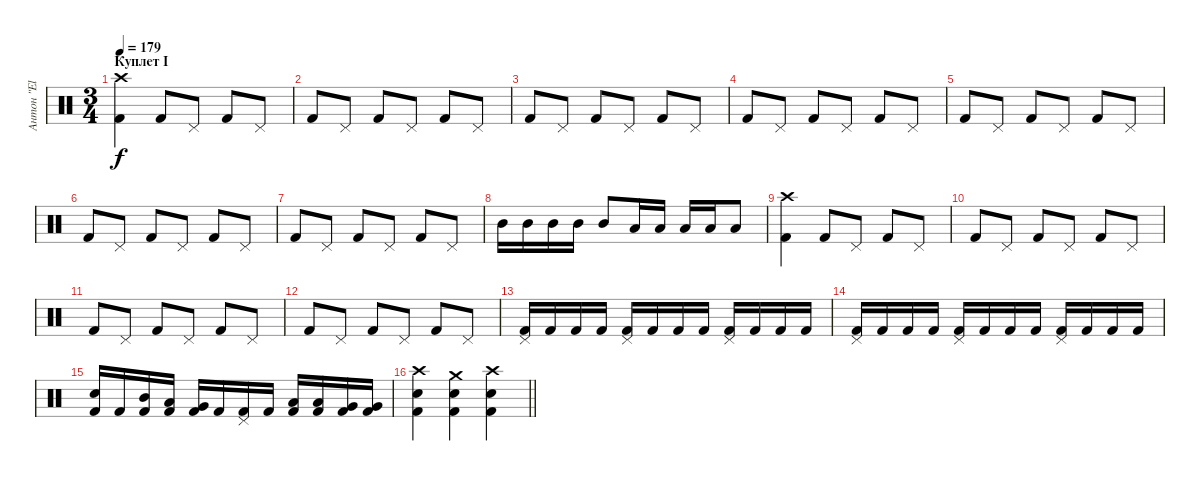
\track ("Антон \"El Bastardo\" Смольянин" "Антон \"El ") {instrument percussion}
\staff {score}
\articulation defaults
\ts (3 4)
\section ("" "Куплет I")
\tempo 179
\clef neutral
\ks c
("Crash high (hit)" "Kick (hit) 2").4{dy f} "Kick (hit) 2".8 "Pedal Hi-Hat (hit)".8 "Kick (hit) 2".8 "Pedal Hi-Hat (hit)".8 |
"Kick (hit) 2".8 "Pedal Hi-Hat (hit)".8 "Kick (hit) 2".8 "Pedal Hi-Hat (hit)".8 "Kick (hit) 2".8 "Pedal Hi-Hat (hit)".8 |
"Kick (hit) 2".8 "Pedal Hi-Hat (hit)".8 "Kick (hit) 2".8 "Pedal Hi-Hat (hit)".8 "Kick (hit) 2".8 "Pedal Hi-Hat (hit)".8 |
"Kick (hit) 2".8 "Pedal Hi-Hat (hit)".8 "Kick (hit) 2".8 "Pedal Hi-Hat (hit)".8 "Kick (hit) 2".8 "Pedal Hi-Hat (hit)".8 |
"Kick (hit) 2".8 "Pedal Hi-Hat (hit)".8 "Kick (hit) 2".8 "Pedal Hi-Hat (hit)".8 "Kick (hit) 2".8 "Pedal Hi-Hat (hit)".8 |
"Kick (hit) 2".8 "Pedal Hi-Hat (hit)".8 "Kick (hit) 2".8 "Pedal Hi-Hat (hit)".8 "Kick (hit) 2".8 "Pedal Hi-Hat (hit)".8 |
"Kick (hit) 2".8 "Pedal Hi-Hat (hit)".8 "Kick (hit) 2".8 "Pedal Hi-Hat (hit)".8 "Kick (hit) 2".8 "Pedal Hi-Hat (hit)".8 |
"Mid Tom (hit)".16 "Mid Tom (hit)".16 "Mid Tom (hit)".16 "Mid Tom (hit)".16 "Mid Tom (hit)".8 "Low Tom (hit)".16 "Low Tom (hit)".16 "Low Tom (hit)".16 "Low Tom (hit)".16 "Low Tom (hit)".8 |
("Crash high (hit)" "Kick (hit) 2").4 "Kick (hit) 2".8 "Pedal Hi-Hat (hit)".8 "Kick (hit) 2".8 "Pedal Hi-Hat (hit)".8 |
"Kick (hit) 2".8 "Pedal Hi-Hat (hit)".8 "Kick (hit) 2".8 "Pedal Hi-Hat (hit)".8 "Kick (hit) 2".8 "Pedal Hi-Hat (hit)".8 |
"Kick (hit) 2".8 "Pedal Hi-Hat (hit)".8 "Kick (hit) 2".8 "Pedal Hi-Hat (hit)".8 "Kick (hit) 2".8 "Pedal Hi-Hat (hit)".8 |
"Kick (hit) 2".8 "Pedal Hi-Hat (hit)".8 "Kick (hit) 2".8 "Pedal Hi-Hat (hit)".8 "Kick (hit) 2".8 "Pedal Hi-Hat (hit)".8 |
("Pedal Hi-Hat (hit)" "Kick (hit) 2").16 "Kick (hit) 2".16 "Kick (hit) 2".16 "Kick (hit) 2".16 ("Pedal Hi-Hat (hit)" "Kick (hit) 2").16 "Kick (hit) 2".16 "Kick (hit) 2".16 "Kick (hit) 2".16 ("Pedal Hi-Hat (hit)" "Kick (hit) 2").16 "Kick (hit) 2".16 "Kick (hit) 2".16 "Kick (hit) 2".16 |
("Pedal Hi-Hat (hit)" "Kick (hit) 2").16 "Kick (hit) 2".16 "Kick (hit) 2".16 "Kick (hit) 2".16 ("Pedal Hi-Hat (hit)" "Kick (hit) 2").16 "Kick (hit) 2".16 "Kick (hit) 2".16 "Kick (hit) 2".16 ("Pedal Hi-Hat (hit)" "Kick (hit) 2").16 "Kick (hit) 2".16 "Kick (hit) 2".16 "Kick (hit) 2".16 |
("Electric Snare (hit)" "Kick (hit) 2").16 "Kick (hit) 2".16 ("Mid Tom (hit)" "Kick (hit) 2").16 ("Low Tom (hit)" "Kick (hit) 2").16 ("Very Low Tom (hit)" "Kick (hit) 2").16 "Kick (hit) 2".16 ("Pedal Hi-Hat (hit)" "Kick (hit) 2").16 "Kick (hit) 2".16 ("Low Tom (hit)" "Kick (hit) 2").16 ("Low Tom (hit)" "Kick (hit) 2").16 ("Very Low Tom (hit)" "Kick (hit) 2").16 ("Very Low Tom (hit)" "Kick (hit) 2").16 |
\barLineRight lightlight
("Crash high (hit)" "Electric Snare (hit)" "Kick (hit) 2").4 ("Crash medium (hit)" "Electric Snare (hit)" "Kick (hit) 2").4 ("Crash high (hit)" "Electric Snare (hit)" "Kick (hit) 2").4
